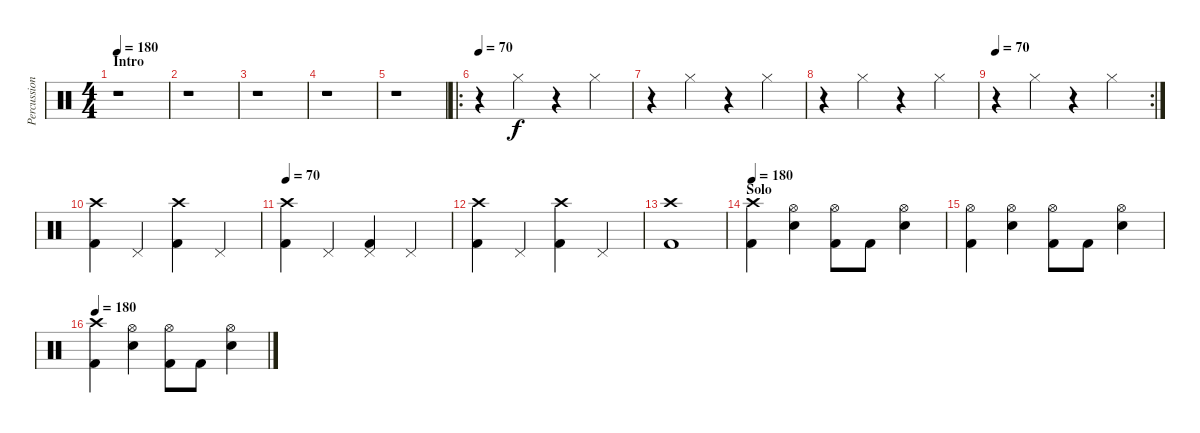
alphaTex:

\track ("Percussion" "Percussion") {instrument percussion}
\staff {score}
\articulation defaults
\ts (4 4)
\section ("" "Intro")
\tempo 180
\tempo 80
\tempo 180
\clef neutral
\ks c
r.1{dy f} |
r.1 |
r.1 |
r.1 |
r.1 |
\ro
\tempo 70
r.4 "Hi-Hat (closed)".4 r.4 "Hi-Hat (closed)".4 |
r.4 "Hi-Hat (closed)".4 r.4 "Hi-Hat (closed)".4 |
r.4 "Hi-Hat (closed)".4 r.4 "Hi-Hat (closed)".4 |
\rc 2
\tempo 70
r.4 "Hi-Hat (closed)".4 r.4 "Hi-Hat (closed)".4 |
("Crash high (hit)" "Kick (hit) 2").4 "Pedal Hi-Hat (hit)".4 ("Crash high (hit)" "Kick (hit) 2").4 "Pedal Hi-Hat (hit)".4 |
\tempo 70
("Crash high (hit)" "Kick (hit) 2").4 "Pedal Hi-Hat (hit)".4 ("Pedal Hi-Hat (hit)" "Kick (hit) 2").4 "Pedal Hi-Hat (hit)".4 |
("Crash high (hit)" "Kick (hit) 2").4 "Pedal Hi-Hat (hit)".4 ("Crash high (hit)" "Kick (hit) 2").4 "Pedal Hi-Hat (hit)".4 |
("Crash high (hit)" "Kick (hit) 2").1 |
\section ("" "Solo")
\tempo 180
("Crash high (hit)" "Kick (hit) 2").4 ("Hi-Hat (open)" "Snare (hit) 2").4 ("Hi-Hat (open)" "Kick (hit) 2").8 "Kick (hit) 2".8 ("Hi-Hat (open)" "Snare (hit) 2").4 |
("Hi-Hat (open)" "Kick (hit) 2").4 ("Hi-Hat (open)" "Snare (hit) 2").4 ("Hi-Hat (open)" "Kick (hit) 2").8 "Kick (hit) 2".8 ("Hi-Hat (open)" "Snare (hit) 2").4 |
\tempo 180
("Crash high (hit)" "Kick (hit) 2").4 ("Hi-Hat (open)" "Snare (hit) 2").4 ("Hi-Hat (open)" "Kick (hit) 2").8 "Kick (hit) 2".8 ("Hi-Hat (open)" "Snare (hit) 2").4
